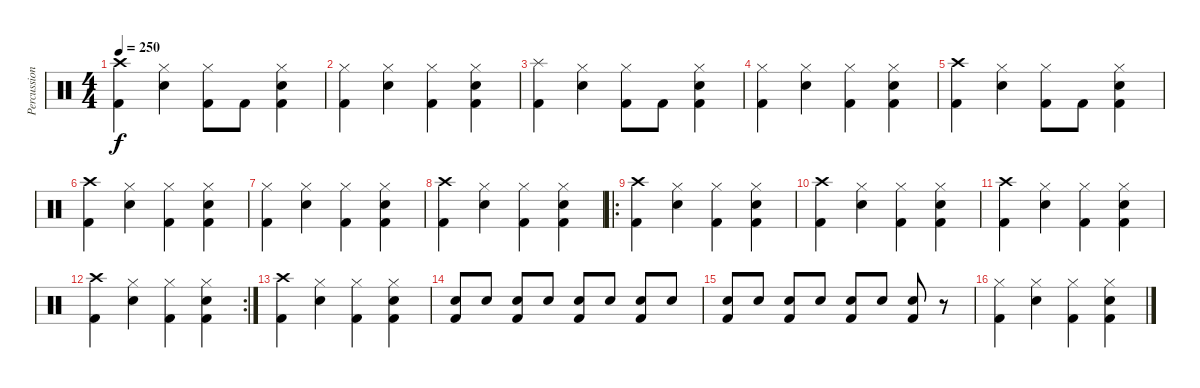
\track ("Percussion" "Percussion") {instrument percussion}
\staff {score}
\articulation defaults
\ts (4 4)
\tempo 250
\clef neutral
\ks c
("Kick (hit) 2" "Crash high (hit)").4{dy f} ("Electric Snare (hit)" "Hi-Hat (closed)").4 ("Kick (hit) 2" "Hi-Hat (closed)").8 "Kick (hit) 2".8 ("Electric Snare (hit)" "Kick (hit) 2" "Hi-Hat (closed)").4 |
("Kick (hit) 2" "Hi-Hat (closed)").4 ("Electric Snare (hit)" "Hi-Hat (closed)").4 ("Kick (hit) 2" "Hi-Hat (closed)").4 ("Electric Snare (hit)" "Kick (hit) 2" "Hi-Hat (closed)").4 |
("Kick (hit) 2" "Splash (hit)").4 ("Electric Snare (hit)" "Hi-Hat (closed)").4 ("Kick (hit) 2" "Hi-Hat (closed)").8 "Kick (hit) 2".8 ("Electric Snare (hit)" "Kick (hit) 2" "Hi-Hat (closed)").4 |
("Kick (hit) 2" "Hi-Hat (closed)").4 ("Electric Snare (hit)" "Hi-Hat (closed)").4 ("Kick (hit) 2" "Hi-Hat (closed)").4 ("Electric Snare (hit)" "Kick (hit) 2" "Hi-Hat (closed)").4 |
("Kick (hit) 2" "Crash high (hit)").4 ("Electric Snare (hit)" "Hi-Hat (closed)").4 ("Kick (hit) 2" "Hi-Hat (closed)").8 "Kick (hit) 2".8 ("Electric Snare (hit)" "Kick (hit) 2" "Hi-Hat (closed)").4 |
("Kick (hit) 2" "Crash high (hit)").4 ("Electric Snare (hit)" "Hi-Hat (closed)").4 ("Kick (hit) 2" "Hi-Hat (closed)").4 ("Electric Snare (hit)" "Kick (hit) 2" "Hi-Hat (closed)").4 |
("Kick (hit) 2" "Hi-Hat (closed)").4 ("Electric Snare (hit)" "Hi-Hat (closed)").4 ("Kick (hit) 2" "Hi-Hat (closed)").4 ("Electric Snare (hit)" "Kick (hit) 2" "Hi-Hat (closed)").4 |
("Kick (hit) 2" "Crash high (hit)").4 ("Electric Snare (hit)" "Hi-Hat (closed)").4 ("Kick (hit) 2" "Hi-Hat (closed)").4 ("Electric Snare (hit)" "Kick (hit) 2" "Hi-Hat (closed)").4 |
\ro
("Kick (hit) 2" "Crash high (hit)").4 ("Electric Snare (hit)" "Hi-Hat (closed)").4 ("Kick (hit) 2" "Hi-Hat (closed)").4 ("Electric Snare (hit)" "Kick (hit) 2" "Hi-Hat (closed)").4 |
("Kick (hit) 2" "Crash high (hit)").4 ("Electric Snare (hit)" "Hi-Hat (closed)").4 ("Kick (hit) 2" "Hi-Hat (closed)").4 ("Electric Snare (hit)" "Kick (hit) 2" "Hi-Hat (closed)").4 |
("Kick (hit) 2" "Crash high (hit)").4 ("Electric Snare (hit)" "Hi-Hat (closed)").4 ("Kick (hit) 2" "Hi-Hat (closed)").4 ("Electric Snare (hit)" "Kick (hit) 2" "Hi-Hat (closed)").4 |
\rc 2
("Kick (hit) 2" "Crash high (hit)").4 ("Electric Snare (hit)" "Hi-Hat (closed)").4 ("Kick (hit) 2" "Hi-Hat (closed)").4 ("Electric Snare (hit)" "Kick (hit) 2" "Hi-Hat (closed)").4 |
("Kick (hit) 2" "Crash high (hit)").4 ("Electric Snare (hit)" "Hi-Hat (closed)").4 ("Kick (hit) 2" "Hi-Hat (closed)").4 ("Electric Snare (hit)" "Kick (hit) 2" "Hi-Hat (closed)").4 |
("Kick (hit) 2" "Electric Snare (hit)").8 "Electric Snare (hit)".8 ("Kick (hit) 2" "Electric Snare (hit)").8 "Electric Snare (hit)".8 ("Kick (hit) 2" "Electric Snare (hit)").8 "Electric Snare (hit)".8 ("Kick (hit) 2" "Electric Snare (hit)").8 "Electric Snare (hit)".8 |
("Kick (hit) 2" "Electric Snare (hit)").8 "Electric Snare (hit)".8 ("Kick (hit) 2" "Electric Snare (hit)").8 "Electric Snare (hit)".8 ("Kick (hit) 2" "Electric Snare (hit)").8 "Electric Snare (hit)".8 ("Kick (hit) 2" "Electric Snare (hit)").8 r.8 |
("Kick (hit) 2" "Hi-Hat (closed)").4 ("Electric Snare (hit)" "Hi-Hat (closed)").4 ("Kick (hit) 2" "Hi-Hat (closed)").4 ("Electric Snare (hit)" "Kick (hit) 2" "Hi-Hat (closed)").4
